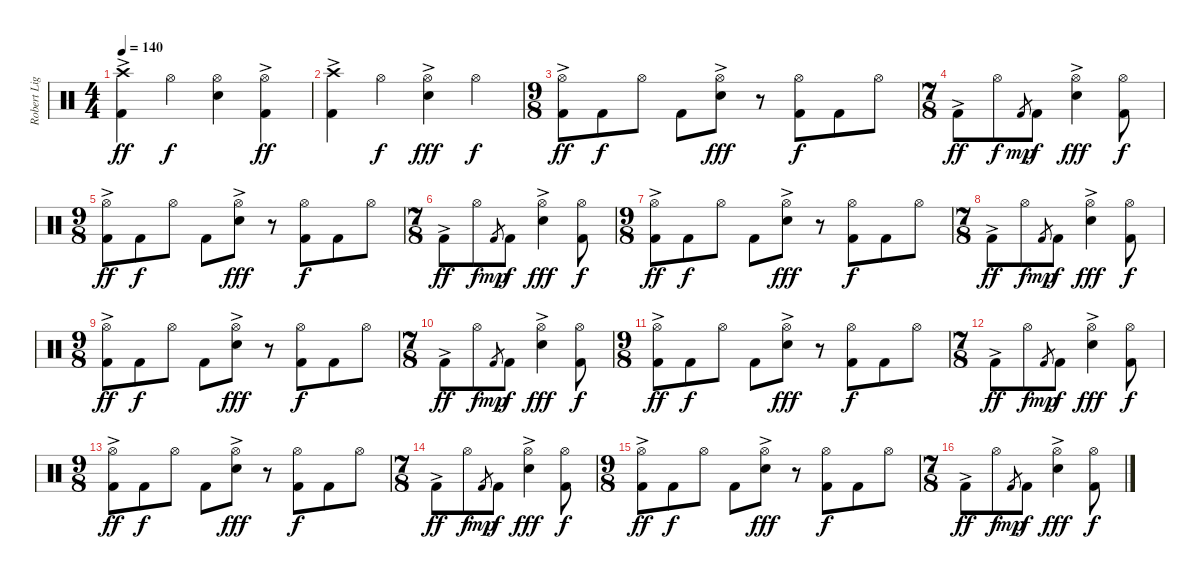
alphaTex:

\track ("Robert Ligiewicz (Perkusja)" "Robert Lig") {instrument percussion}
\staff {score}
\articulation defaults
\ts (4 4)
\tempo 140
\clef neutral
\ks c
("Crash high (hit)" "Kick (hit) 2"{ac}).4{dy ff} "Hi-Hat (open)".4{dy f} ("Hi-Hat (open)" "Electric Snare (hit)").4 ("Hi-Hat (open)" "Kick (hit) 2"{ac}).4{dy ff} |
("Crash high (hit)" "Kick (hit) 2"{ac}).4 "Hi-Hat (open)".4{dy f} ("Hi-Hat (open)" "Electric Snare (hit)"{ac}).4{dy fff} "Hi-Hat (open)".4{dy f} |
\ts (9 8)
("Hi-Hat (open)" "Kick (hit) 2"{ac}).8{dy ff} "Kick (hit) 2".8{dy f} "Hi-Hat (open)".8 "Kick (hit) 2".8 ("Hi-Hat (open)" "Electric Snare (hit)"{ac}).8{dy fff} r.8 ("Hi-Hat (open)" "Kick (hit) 2").8{dy f} "Kick (hit) 2".8 "Hi-Hat (open)".8 |
\ts (7 8)
"Kick (hit) 2"{ac}.8{dy ff} "Hi-Hat (open)".8{dy f} "Kick (hit) 2".8{gr dy mp} "Kick (hit) 2".8{dy f} ("Hi-Hat (open)" "Electric Snare (hit)"{ac}).4{dy fff} ("Hi-Hat (open)" "Kick (hit) 2").8{dy f} |
\ts (9 8)
("Hi-Hat (open)" "Kick (hit) 2"{ac}).8{dy ff} "Kick (hit) 2".8{dy f} "Hi-Hat (open)".8 "Kick (hit) 2".8 ("Hi-Hat (open)" "Electric Snare (hit)"{ac}).8{dy fff} r.8 ("Hi-Hat (open)" "Kick (hit) 2").8{dy f} "Kick (hit) 2".8 "Hi-Hat (open)".8 |
\ts (7 8)
"Kick (hit) 2"{ac}.8{dy ff} "Hi-Hat (open)".8{dy f} "Kick (hit) 2".8{gr dy mp} "Kick (hit) 2".8{dy f} ("Hi-Hat (open)" "Electric Snare (hit)"{ac}).4{dy fff} ("Hi-Hat (open)" "Kick (hit) 2").8{dy f} |
\ts (9 8)
("Hi-Hat (open)" "Kick (hit) 2"{ac}).8{dy ff} "Kick (hit) 2".8{dy f} "Hi-Hat (open)".8 "Kick (hit) 2".8 ("Hi-Hat (open)" "Electric Snare (hit)"{ac}).8{dy fff} r.8 ("Hi-Hat (open)" "Kick (hit) 2").8{dy f} "Kick (hit) 2".8 "Hi-Hat (open)".8 |
\ts (7 8)
"Kick (hit) 2"{ac}.8{dy ff} "Hi-Hat (open)".8{dy f} "Kick (hit) 2".8{gr dy mp} "Kick (hit) 2".8{dy f} ("Hi-Hat (open)" "Electric Snare (hit)"{ac}).4{dy fff} ("Hi-Hat (open)" "Kick (hit) 2").8{dy f} |
\ts (9 8)
("Hi-Hat (open)" "Kick (hit) 2"{ac}).8{dy ff} "Kick (hit) 2".8{dy f} "Hi-Hat (open)".8 "Kick (hit) 2".8 ("Hi-Hat (open)" "Electric Snare (hit)"{ac}).8{dy fff} r.8 ("Hi-Hat (open)" "Kick (hit) 2").8{dy f} "Kick (hit) 2".8 "Hi-Hat (open)".8 |
\ts (7 8)
"Kick (hit) 2"{ac}.8{dy ff} "Hi-Hat (open)".8{dy f} "Kick (hit) 2".8{gr dy mp} "Kick (hit) 2".8{dy f} ("Hi-Hat (open)" "Electric Snare (hit)"{ac}).4{dy fff} ("Hi-Hat (open)" "Kick (hit) 2").8{dy f} |
\ts (9 8)
("Hi-Hat (open)" "Kick (hit) 2"{ac}).8{dy ff} "Kick (hit) 2".8{dy f} "Hi-Hat (open)".8 "Kick (hit) 2".8 ("Hi-Hat (open)" "Electric Snare (hit)"{ac}).8{dy fff} r.8 ("Hi-Hat (open)" "Kick (hit) 2").8{dy f} "Kick (hit) 2".8 "Hi-Hat (open)".8 |
\ts (7 8)
"Kick (hit) 2"{ac}.8{dy ff} "Hi-Hat (open)".8{dy f} "Kick (hit) 2".8{gr dy mp} "Kick (hit) 2".8{dy f} ("Hi-Hat (open)" "Electric Snare (hit)"{ac}).4{dy fff} ("Hi-Hat (open)" "Kick (hit) 2").8{dy f} |
\ts (9 8)
("Hi-Hat (open)" "Kick (hit) 2"{ac}).8{dy ff} "Kick (hit) 2".8{dy f} "Hi-Hat (open)".8 "Kick (hit) 2".8 ("Hi-Hat (open)" "Electric Snare (hit)"{ac}).8{dy fff} r.8 ("Hi-Hat (open)" "Kick (hit) 2").8{dy f} "Kick (hit) 2".8 "Hi-Hat (open)".8 |
\ts (7 8)
"Kick (hit) 2"{ac}.8{dy ff} "Hi-Hat (open)".8{dy f} "Kick (hit) 2".8{gr dy mp} "Kick (hit) 2".8{dy f} ("Hi-Hat (open)" "Electric Snare (hit)"{ac}).4{dy fff} ("Hi-Hat (open)" "Kick (hit) 2").8{dy f} |
\ts (9 8)
("Hi-Hat (open)" "Kick (hit) 2"{ac}).8{dy ff} "Kick (hit) 2".8{dy f} "Hi-Hat (open)".8 "Kick (hit) 2".8 ("Hi-Hat (open)" "Electric Snare (hit)"{ac}).8{dy fff} r.8 ("Hi-Hat (open)" "Kick (hit) 2").8{dy f} "Kick (hit) 2".8 "Hi-Hat (open)".8 |
\ts (7 8)
"Kick (hit) 2"{ac}.8{dy ff} "Hi-Hat (open)".8{dy f} "Kick (hit) 2".8{gr dy mp} "Kick (hit) 2".8{dy f} ("Hi-Hat (open)" "Electric Snare (hit)"{ac}).4{dy fff} ("Hi-Hat (open)" "Kick (hit) 2").8{dy f}
